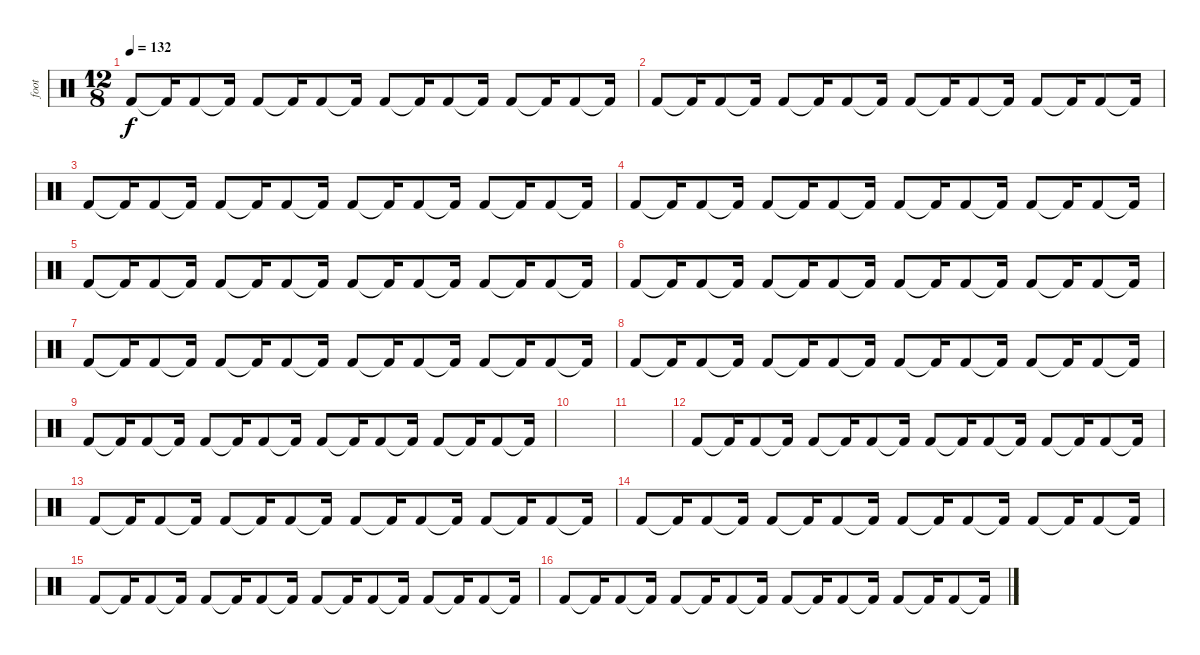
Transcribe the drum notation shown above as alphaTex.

\track ("foot" "foot") {instrument percussion}
\staff {score}
\articulation defaults
\ts (12 8)
\tempo 132
\clef neutral
\ks c "Kick (hit) 2".8{dy f} "Kick (hit) 2"{t}.16 "Kick (hit) 2".8 "Kick (hit) 2"{t}.16 "Kick (hit) 2".8 "Kick (hit) 2"{t}.16 "Kick (hit) 2".8 "Kick (hit) 2"{t}.16 "Kick (hit) 2".8 "Kick (hit) 2"{t}.16 "Kick (hit) 2".8 "Kick (hit) 2"{t}.16 "Kick (hit) 2".8 "Kick (hit) 2"{t}.16 "Kick (hit) 2".8 "Kick (hit) 2"{t}.16
|
"Kick (hit) 2".8 "Kick (hit) 2"{t}.16 "Kick (hit) 2".8 "Kick (hit) 2"{t}.16 "Kick (hit) 2".8 "Kick (hit) 2"{t}.16 "Kick (hit) 2".8 "Kick (hit) 2"{t}.16 "Kick (hit) 2".8 "Kick (hit) 2"{t}.16 "Kick (hit) 2".8 "Kick (hit) 2"{t}.16 "Kick (hit) 2".8 "Kick (hit) 2"{t}.16 "Kick (hit) 2".8 "Kick (hit) 2"{t}.16 |
"Kick (hit) 2".8 "Kick (hit) 2"{t}.16 "Kick (hit) 2".8 "Kick (hit) 2"{t}.16 "Kick (hit) 2".8 "Kick (hit) 2"{t}.16 "Kick (hit) 2".8 "Kick (hit) 2"{t}.16 "Kick (hit) 2".8 "Kick (hit) 2"{t}.16 "Kick (hit) 2".8 "Kick (hit) 2"{t}.16 "Kick (hit) 2".8 "Kick (hit) 2"{t}.16 "Kick (hit) 2".8 "Kick (hit) 2"{t}.16 |
"Kick (hit) 2".8 "Kick (hit) 2"{t}.16 "Kick (hit) 2".8 "Kick (hit) 2"{t}.16 "Kick (hit) 2".8 "Kick (hit) 2"{t}.16 "Kick (hit) 2".8 "Kick (hit) 2"{t}.16 "Kick (hit) 2".8 "Kick (hit) 2"{t}.16 "Kick (hit) 2".8 "Kick (hit) 2"{t}.16 "Kick (hit) 2".8 "Kick (hit) 2"{t}.16 "Kick (hit) 2".8 "Kick (hit) 2"{t}.16 |
"Kick (hit) 2".8 "Kick (hit) 2"{t}.16 "Kick (hit) 2".8 "Kick (hit) 2"{t}.16 "Kick (hit) 2".8 "Kick (hit) 2"{t}.16 "Kick (hit) 2".8 "Kick (hit) 2"{t}.16 "Kick (hit) 2".8 "Kick (hit) 2"{t}.16 "Kick (hit) 2".8 "Kick (hit) 2"{t}.16 "Kick (hit) 2".8 "Kick (hit) 2"{t}.16 "Kick (hit) 2".8 "Kick (hit) 2"{t}.16 |
"Kick (hit) 2".8 "Kick (hit) 2"{t}.16 "Kick (hit) 2".8 "Kick (hit) 2"{t}.16 "Kick (hit) 2".8 "Kick (hit) 2"{t}.16 "Kick (hit) 2".8 "Kick (hit) 2"{t}.16 "Kick (hit) 2".8 "Kick (hit) 2"{t}.16 "Kick (hit) 2".8 "Kick (hit) 2"{t}.16 "Kick (hit) 2".8 "Kick (hit) 2"{t}.16 "Kick (hit) 2".8 "Kick (hit) 2"{t}.16 |
"Kick (hit) 2".8 "Kick (hit) 2"{t}.16 "Kick (hit) 2".8 "Kick (hit) 2"{t}.16 "Kick (hit) 2".8 "Kick (hit) 2"{t}.16 "Kick (hit) 2".8 "Kick (hit) 2"{t}.16 "Kick (hit) 2".8 "Kick (hit) 2"{t}.16 "Kick (hit) 2".8 "Kick (hit) 2"{t}.16 "Kick (hit) 2".8 "Kick (hit) 2"{t}.16 "Kick (hit) 2".8 "Kick (hit) 2"{t}.16 |
"Kick (hit) 2".8 "Kick (hit) 2"{t}.16 "Kick (hit) 2".8 "Kick (hit) 2"{t}.16 "Kick (hit) 2".8 "Kick (hit) 2"{t}.16 "Kick (hit) 2".8 "Kick (hit) 2"{t}.16 "Kick (hit) 2".8 "Kick (hit) 2"{t}.16 "Kick (hit) 2".8 "Kick (hit) 2"{t}.16 "Kick (hit) 2".8 "Kick (hit) 2"{t}.16 "Kick (hit) 2".8 "Kick (hit) 2"{t}.16 |
"Kick (hit) 2".8 "Kick (hit) 2"{t}.16 "Kick (hit) 2".8 "Kick (hit) 2"{t}.16 "Kick (hit) 2".8 "Kick (hit) 2"{t}.16 "Kick (hit) 2".8 "Kick (hit) 2"{t}.16 "Kick (hit) 2".8 "Kick (hit) 2"{t}.16 "Kick (hit) 2".8 "Kick (hit) 2"{t}.16 "Kick (hit) 2".8 "Kick (hit) 2"{t}.16 "Kick (hit) 2".8 "Kick (hit) 2"{t}.16 |
|
|
"Kick (hit) 2".8 "Kick (hit) 2"{t}.16 "Kick (hit) 2".8 "Kick (hit) 2"{t}.16 "Kick (hit) 2".8 "Kick (hit) 2"{t}.16 "Kick (hit) 2".8 "Kick (hit) 2"{t}.16 "Kick (hit) 2".8 "Kick (hit) 2"{t}.16 "Kick (hit) 2".8 "Kick (hit) 2"{t}.16 "Kick (hit) 2".8 "Kick (hit) 2"{t}.16 "Kick (hit) 2".8 "Kick (hit) 2"{t}.16 |
"Kick (hit) 2".8 "Kick (hit) 2"{t}.16 "Kick (hit) 2".8 "Kick (hit) 2"{t}.16 "Kick (hit) 2".8 "Kick (hit) 2"{t}.16 "Kick (hit) 2".8 "Kick (hit) 2"{t}.16 "Kick (hit) 2".8 "Kick (hit) 2"{t}.16 "Kick (hit) 2".8 "Kick (hit) 2"{t}.16 "Kick (hit) 2".8 "Kick (hit) 2"{t}.16 "Kick (hit) 2".8 "Kick (hit) 2"{t}.16 |
"Kick (hit) 2".8 "Kick (hit) 2"{t}.16 "Kick (hit) 2".8 "Kick (hit) 2"{t}.16 "Kick (hit) 2".8 "Kick (hit) 2"{t}.16 "Kick (hit) 2".8 "Kick (hit) 2"{t}.16 "Kick (hit) 2".8 "Kick (hit) 2"{t}.16 "Kick (hit) 2".8 "Kick (hit) 2"{t}.16 "Kick (hit) 2".8 "Kick (hit) 2"{t}.16 "Kick (hit) 2".8 "Kick (hit) 2"{t}.16 |
"Kick (hit) 2".8 "Kick (hit) 2"{t}.16 "Kick (hit) 2".8 "Kick (hit) 2"{t}.16 "Kick (hit) 2".8 "Kick (hit) 2"{t}.16 "Kick (hit) 2".8 "Kick (hit) 2"{t}.16 "Kick (hit) 2".8 "Kick (hit) 2"{t}.16 "Kick (hit) 2".8 "Kick (hit) 2"{t}.16 "Kick (hit) 2".8 "Kick (hit) 2"{t}.16 "Kick (hit) 2".8 "Kick (hit) 2"{t}.16 |
"Kick (hit) 2".8 "Kick (hit) 2"{t}.16 "Kick (hit) 2".8 "Kick (hit) 2"{t}.16 "Kick (hit) 2".8 "Kick (hit) 2"{t}.16 "Kick (hit) 2".8 "Kick (hit) 2"{t}.16 "Kick (hit) 2".8 "Kick (hit) 2"{t}.16 "Kick (hit) 2".8 "Kick (hit) 2"{t}.16 "Kick (hit) 2".8 "Kick (hit) 2"{t}.16 "Kick (hit) 2".8 "Kick (hit) 2"{t}.16
